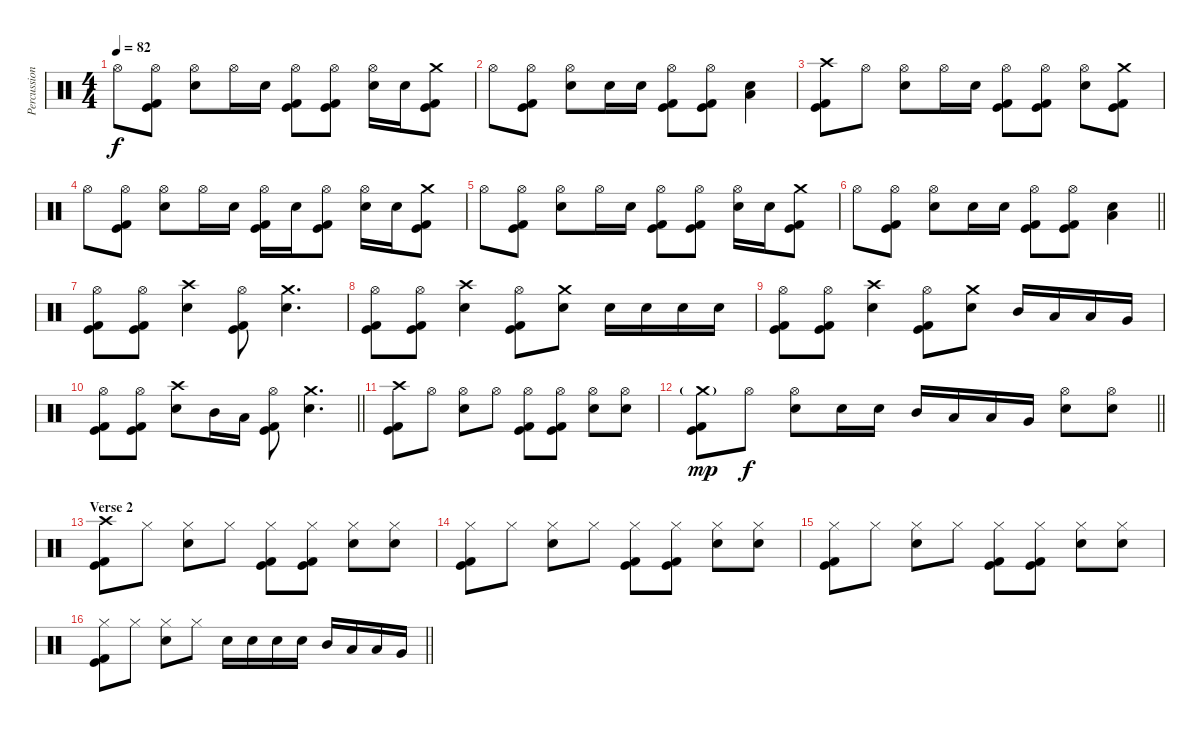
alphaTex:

\track ("Percussion" "Percussion") {instrument percussion}
\staff {score}
\articulation defaults
\ts (4 4)
\tempo 82
\clef neutral
\ks c "Hi-Hat (open)".8{dy f}
("Hi-Hat (open)" "Kick (hit)" "Kick (hit) 2").8 ("Hi-Hat (open)" "Electric Snare (hit)").8 "Hi-Hat (open)".16 "Electric Snare (hit)".16 ("Hi-Hat (open)" "Kick (hit)" "Kick (hit) 2").8 ("Hi-Hat (open)" "Kick (hit)" "Kick (hit) 2").8 ("Hi-Hat (open)" "Electric Snare (hit)").16 "Electric Snare (hit)".16 ("Crash medium (hit)" "Kick (hit)" "Kick (hit) 2").8 |
"Hi-Hat (open)".8 ("Hi-Hat (open)" "Kick (hit)" "Kick (hit) 2").8 ("Hi-Hat (open)" "Electric Snare (hit)").8 "Electric Snare (hit)".16 "Electric Snare (hit)".16 ("Hi-Hat (open)" "Kick (hit)" "Kick (hit) 2").8 ("Hi-Hat (open)" "Kick (hit)" "Kick (hit) 2").8 ("Electric Snare (hit)" "Low Floor Tom (hit)").4 |
("Crash high (hit)" "Kick (hit)" "Kick (hit) 2").8 "Hi-Hat (open)".8 ("Hi-Hat (open)" "Electric Snare (hit)").8 "Hi-Hat (open)".16 "Electric Snare (hit)".16 ("Hi-Hat (open)" "Kick (hit)" "Kick (hit) 2").8 ("Hi-Hat (open)" "Kick (hit)" "Kick (hit) 2").8 ("Hi-Hat (open)" "Electric Snare (hit)").8 ("Crash medium (hit)" "Kick (hit)" "Kick (hit) 2").8 |
"Hi-Hat (open)".8 ("Hi-Hat (open)" "Kick (hit)" "Kick (hit) 2").8 ("Hi-Hat (open)" "Electric Snare (hit)").8 "Hi-Hat (open)".16 "Electric Snare (hit)".16 ("Hi-Hat (open)" "Kick (hit)" "Kick (hit) 2").16 "Electric Snare (hit)".16 ("Hi-Hat (open)" "Kick (hit)" "Kick (hit) 2").8 ("Hi-Hat (open)" "Electric Snare (hit)").16 "Electric Snare (hit)".16 ("Crash medium (hit)" "Kick (hit)" "Kick (hit) 2").8 |
"Hi-Hat (open)".8 ("Hi-Hat (open)" "Kick (hit)" "Kick (hit) 2").8 ("Hi-Hat (open)" "Electric Snare (hit)").8 "Hi-Hat (open)".16 "Electric Snare (hit)".16 ("Hi-Hat (open)" "Kick (hit)" "Kick (hit) 2").8 ("Hi-Hat (open)" "Kick (hit)" "Kick (hit) 2").8 ("Hi-Hat (open)" "Electric Snare (hit)").16 "Electric Snare (hit)".16 ("Crash medium (hit)" "Kick (hit)" "Kick (hit) 2").8 |
\barLineRight lightlight "Hi-Hat (open)".8
("Hi-Hat (open)" "Kick (hit)" "Kick (hit) 2").8 ("Hi-Hat (open)" "Electric Snare (hit)").8 "Electric Snare (hit)".16 "Electric Snare (hit)".16 ("Hi-Hat (open)" "Kick (hit)" "Kick (hit) 2").8 ("Hi-Hat (open)" "Kick (hit)" "Kick (hit) 2").8 ("Electric Snare (hit)" "Low Floor Tom (hit)").4 |
\section ("" "")
("Hi-Hat (open)" "Kick (hit)" "Kick (hit) 2").8 ("Hi-Hat (open)" "Kick (hit)" "Kick (hit) 2").8 ("Crash high (hit)" "Electric Snare (hit)").4 ("Hi-Hat (open)" "Kick (hit)" "Kick (hit) 2").8 ("Crash medium (hit)" "Electric Snare (hit)").4{d} |
("Hi-Hat (open)" "Kick (hit)" "Kick (hit) 2").8 ("Hi-Hat (open)" "Kick (hit)" "Kick (hit) 2").8 ("Crash high (hit)" "Electric Snare (hit)").4 ("Hi-Hat (open)" "Kick (hit)" "Kick (hit) 2").8 ("Crash medium (hit)" "Electric Snare (hit)").8 "Electric Snare (hit)".16 "Electric Snare (hit)".16 "Electric Snare (hit)".16 "Electric Snare (hit)".16 |
("Hi-Hat (open)" "Kick (hit)" "Kick (hit) 2").8 ("Hi-Hat (open)" "Kick (hit)" "Kick (hit) 2").8 ("Crash high (hit)" "Electric Snare (hit)").4 ("Hi-Hat (open)" "Kick (hit)" "Kick (hit) 2").8 ("Crash medium (hit)" "Electric Snare (hit)").8 "Mid Tom (hit)".16 "Low Tom (hit)".16 "Low Tom (hit)".16 "Very Low Tom (hit)".16 |
\barLineRight lightlight
("Hi-Hat (open)" "Kick (hit)" "Kick (hit) 2").8 ("Hi-Hat (open)" "Kick (hit)" "Kick (hit) 2").8 ("Crash high (hit)" "Electric Snare (hit)").8 "Mid Tom (hit)".16 "Low Tom (hit)".16 ("Hi-Hat (open)" "Kick (hit)" "Kick (hit) 2").8 ("Crash medium (hit)" "Electric Snare (hit)").4{d} |
\section ("" "")
("Crash high (hit)" "Kick (hit)" "Kick (hit) 2").8 "Hi-Hat (open)".8 ("Hi-Hat (open)" "Electric Snare (hit)").8 "Hi-Hat (open)".8 ("Hi-Hat (open)" "Kick (hit)" "Kick (hit) 2").8 ("Hi-Hat (open)" "Kick (hit)" "Kick (hit) 2").8 ("Hi-Hat (open)" "Electric Snare (hit)").8 ("Hi-Hat (open)" "Electric Snare (hit)").8 |
\barLineRight lightlight
("Crash medium (hit)"{g} "Kick (hit)" "Kick (hit) 2").8{dy mp} "Hi-Hat (open)".8{dy f} ("Hi-Hat (open)" "Electric Snare (hit)").8 "Electric Snare (hit)".16 "Electric Snare (hit)".16 "Mid Tom (hit)".16 "Low Tom (hit)".16 "Low Tom (hit)".16 "Very Low Tom (hit)".16 ("Hi-Hat (open)" "Electric Snare (hit)").8 ("Hi-Hat (open)" "Electric Snare (hit)").8 |
\section ("" "Verse 2")
("Crash high (hit)" "Kick (hit)" "Kick (hit) 2").8 "Hi-Hat (closed)".8 ("Hi-Hat (closed)" "Electric Snare (hit)").8 "Hi-Hat (closed)".8 ("Hi-Hat (closed)" "Kick (hit)" "Kick (hit) 2").8 ("Hi-Hat (closed)" "Kick (hit)" "Kick (hit) 2").8 ("Hi-Hat (closed)" "Electric Snare (hit)").8 ("Hi-Hat (closed)" "Electric Snare (hit)").8 |
("Hi-Hat (closed)" "Kick (hit)" "Kick (hit) 2").8 "Hi-Hat (closed)".8 ("Hi-Hat (closed)" "Electric Snare (hit)").8 "Hi-Hat (closed)".8 ("Hi-Hat (closed)" "Kick (hit)" "Kick (hit) 2").8 ("Hi-Hat (closed)" "Kick (hit)" "Kick (hit) 2").8 ("Hi-Hat (closed)" "Electric Snare (hit)").8 ("Hi-Hat (closed)" "Electric Snare (hit)").8 |
("Hi-Hat (closed)" "Kick (hit)" "Kick (hit) 2").8 "Hi-Hat (closed)".8 ("Hi-Hat (closed)" "Electric Snare (hit)").8 "Hi-Hat (closed)".8 ("Hi-Hat (closed)" "Kick (hit)" "Kick (hit) 2").8 ("Hi-Hat (closed)" "Kick (hit)" "Kick (hit) 2").8 ("Hi-Hat (closed)" "Electric Snare (hit)").8 ("Hi-Hat (closed)" "Electric Snare (hit)").8 |
\barLineRight lightlight
("Hi-Hat (closed)" "Kick (hit)" "Kick (hit) 2").8 "Hi-Hat (closed)".8 ("Hi-Hat (closed)" "Electric Snare (hit)").8 "Hi-Hat (closed)".8 "Electric Snare (hit)".16 "Electric Snare (hit)".16 "Electric Snare (hit)".16 "Electric Snare (hit)".16 "Mid Tom (hit)".16 "Low Tom (hit)".16 "Low Tom (hit)".16 "Very Low Tom (hit)".16
